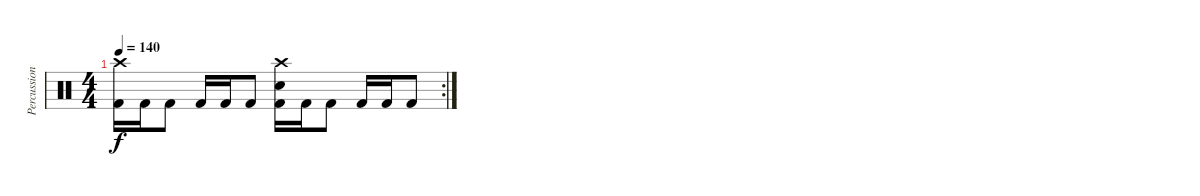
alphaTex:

\track ("Percussion" "Percussion") {instrument percussion}
\staff {score}
\articulation defaults
\rc 2
\ts (4 4)
\tempo 140
\clef neutral
\ks c
("Crash high (hit)" "Kick (hit) 2").16{dy f} "Kick (hit) 2".16 "Kick (hit) 2".8 "Kick (hit) 2".16 "Kick (hit) 2".16 "Kick (hit) 2".8 ("Snare (hit) 2" "Crash high (hit)" "Kick (hit) 2").16 "Kick (hit) 2".16 "Kick (hit) 2".8 "Kick (hit) 2".16 "Kick (hit) 2".16 "Kick (hit) 2".8
